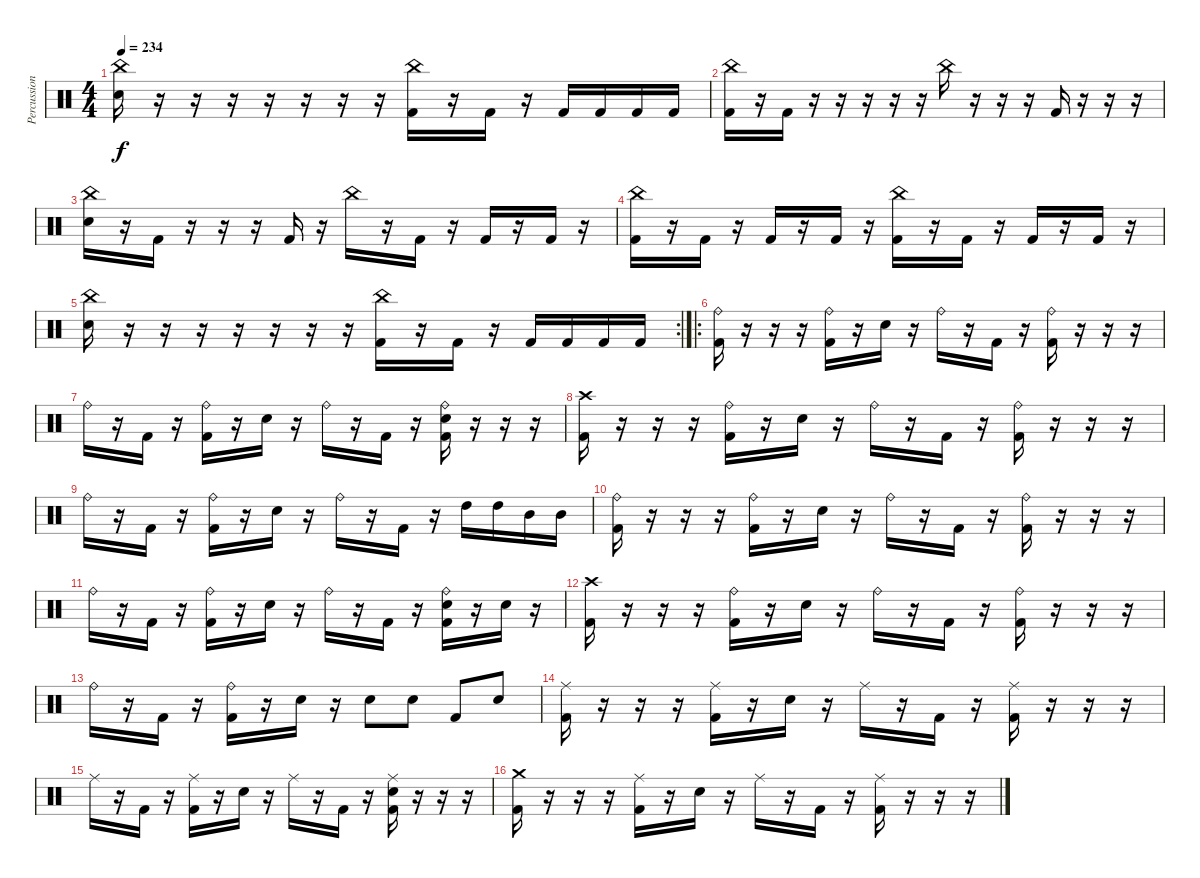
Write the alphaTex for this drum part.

\track ("Percussion" "Percussion") {instrument percussion}
\staff {score}
\articulation defaults
\ts (4 4)
\tempo 234
\clef neutral
\ks c
("China (hit)" "Electric Snare (hit)").16{dy f} r.16 r.16 r.16 r.16 r.16 r.16 r.16 ("China (hit)" "Kick (hit) 2").16 r.16 "Kick (hit) 2".16 r.16 "Kick (hit) 2".16 "Kick (hit) 2".16 "Kick (hit) 2".16 "Kick (hit) 2".16 |
("China (hit)" "Kick (hit) 2").16 r.16 "Kick (hit) 2".16 r.16 r.16 r.16 r.16 r.16 "China (hit)".16 r.16 r.16 r.16 "Kick (hit) 2".16 r.16 r.16 r.16 |
("China (hit)" "Electric Snare (hit)").16 r.16 "Kick (hit) 2".16 r.16 r.16 r.16 "Kick (hit) 2".16 r.16 "China (hit)".16 r.16 "Kick (hit) 2".16 r.16 "Kick (hit) 2".16 r.16 "Kick (hit) 2".16 r.16 |
("China (hit)" "Kick (hit) 2").16 r.16 "Kick (hit) 2".16 r.16 "Kick (hit) 2".16 r.16 "Kick (hit) 2".16 r.16 ("China (hit)" "Kick (hit) 2").16 r.16 "Kick (hit) 2".16 r.16 "Kick (hit) 2".16 r.16 "Kick (hit) 2".16 r.16 |
\rc 2
("China (hit)" "Electric Snare (hit)").16 r.16 r.16 r.16 r.16 r.16 r.16 r.16 ("China (hit)" "Kick (hit) 2").16 r.16 "Kick (hit) 2".16 r.16 "Kick (hit) 2".16 "Kick (hit) 2".16 "Kick (hit) 2".16 "Kick (hit) 2".16 |
\ro
("Ride (bell)" "Kick (hit) 2").16 r.16 r.16 r.16 ("Ride (bell)" "Kick (hit) 2").16 r.16 "Electric Snare (hit)".16 r.16 "Ride (bell)".16 r.16 "Kick (hit) 2".16 r.16 ("Ride (bell)" "Kick (hit) 2").16 r.16 r.16 r.16 |
"Ride (bell)".16 r.16 "Kick (hit) 2".16 r.16 ("Ride (bell)" "Kick (hit) 2").16 r.16 "Electric Snare (hit)".16 r.16 "Ride (bell)".16 r.16 "Kick (hit) 2".16 r.16 ("Ride (bell)" "Electric Snare (hit)" "Kick (hit) 2").16 r.16 r.16 r.16 |
("Crash high (hit)" "Kick (hit) 2").16 r.16 r.16 r.16 ("Ride (bell)" "Kick (hit) 2").16 r.16 "Electric Snare (hit)".16 r.16 "Ride (bell)".16 r.16 "Kick (hit) 2".16 r.16 ("Ride (bell)" "Kick (hit) 2").16 r.16 r.16 r.16 |
"Ride (bell)".16 r.16 "Kick (hit) 2".16 r.16 ("Ride (bell)" "Kick (hit) 2").16 r.16 "Electric Snare (hit)".16 r.16 "Ride (bell)".16 r.16 "Kick (hit) 2".16 r.16 "High Tom (hit)".16 "High Tom (hit)".16 "Mid Tom (hit)".16 "Mid Tom (hit)".16 |
("Ride (bell)" "Kick (hit) 2").16 r.16 r.16 r.16 ("Ride (bell)" "Kick (hit) 2").16 r.16 "Electric Snare (hit)".16 r.16 "Ride (bell)".16 r.16 "Kick (hit) 2".16 r.16 ("Ride (bell)" "Kick (hit) 2").16 r.16 r.16 r.16 |
"Ride (bell)".16 r.16 "Kick (hit) 2".16 r.16 ("Ride (bell)" "Kick (hit) 2").16 r.16 "Electric Snare (hit)".16 r.16 "Ride (bell)".16 r.16 "Kick (hit) 2".16 r.16 ("Ride (bell)" "Electric Snare (hit)" "Kick (hit) 2").16 r.16 "Electric Snare (hit)".16 r.16 |
("Crash high (hit)" "Kick (hit) 2").16 r.16 r.16 r.16 ("Ride (bell)" "Kick (hit) 2").16 r.16 "Electric Snare (hit)".16 r.16 "Ride (bell)".16 r.16 "Kick (hit) 2".16 r.16 ("Ride (bell)" "Kick (hit) 2").16 r.16 r.16 r.16 |
"Ride (bell)".16 r.16 "Kick (hit) 2".16 r.16 ("Ride (bell)" "Kick (hit) 2").16 r.16 "Electric Snare (hit)".16 r.16 "Electric Snare (hit)".8 "Electric Snare (hit)".8 "Kick (hit) 2".8 "Electric Snare (hit)".8 |
("Ride (middle)" "Kick (hit) 2").16 r.16 r.16 r.16 ("Ride (middle)" "Kick (hit) 2").16 r.16 "Electric Snare (hit)".16 r.16 "Ride (middle)".16 r.16 "Kick (hit) 2".16 r.16 ("Ride (middle)" "Kick (hit) 2").16 r.16 r.16 r.16 |
"Ride (middle)".16 r.16 "Kick (hit) 2".16 r.16 ("Ride (middle)" "Kick (hit) 2").16 r.16 "Electric Snare (hit)".16 r.16 "Ride (middle)".16 r.16 "Kick (hit) 2".16 r.16 ("Ride (middle)" "Electric Snare (hit)" "Kick (hit) 2").16 r.16 r.16 r.16 |
("Crash medium (hit)" "Kick (hit) 2").16 r.16 r.16 r.16 ("Ride (middle)" "Kick (hit) 2").16 r.16 "Electric Snare (hit)".16 r.16 "Ride (middle)".16 r.16 "Kick (hit) 2".16 r.16 ("Ride (middle)" "Kick (hit) 2").16 r.16 r.16 r.16
